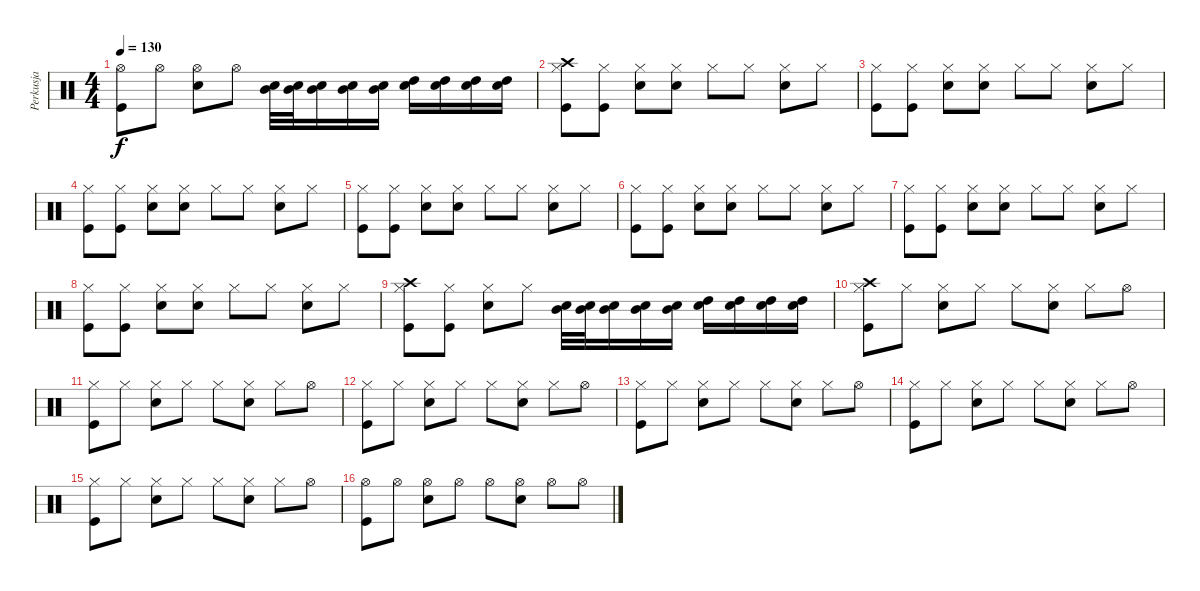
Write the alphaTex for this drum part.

\track ("Perkusja" "Perkusja") {instrument percussion}
\staff {score}
\articulation defaults
\ts (4 4)
\tempo 130
\clef neutral
\ks c
("Hi-Hat (open)" "Kick (hit)").8{dy f} "Hi-Hat (open)".8 ("Hi-Hat (open)" "Electric Snare (hit)").8 "Hi-Hat (open)".8 ("Mid Tom (hit)" "Electric Snare (hit)").32 ("Mid Tom (hit)" "Electric Snare (hit)").32 ("Mid Tom (hit)" "Electric Snare (hit)").16 ("Mid Tom (hit)" "Electric Snare (hit)").16 ("Mid Tom (hit)" "Electric Snare (hit)").16 ("High Tom (hit)" "Electric Snare (hit)").16 ("High Tom (hit)" "Electric Snare (hit)").16 ("High Tom (hit)" "Electric Snare (hit)").16 ("High Tom (hit)" "Electric Snare (hit)").16 |
("Hi-Hat (closed)" "Crash high (hit)" "Kick (hit)").8 ("Hi-Hat (closed)" "Kick (hit)").8 ("Hi-Hat (closed)" "Electric Snare (hit)").8 ("Hi-Hat (closed)" "Electric Snare (hit)").8 "Hi-Hat (closed)".8 "Hi-Hat (closed)".8 ("Hi-Hat (closed)" "Electric Snare (hit)").8 "Hi-Hat (closed)".8 |
("Hi-Hat (closed)" "Kick (hit)").8 ("Hi-Hat (closed)" "Kick (hit)").8 ("Hi-Hat (closed)" "Electric Snare (hit)").8 ("Hi-Hat (closed)" "Electric Snare (hit)").8 "Hi-Hat (closed)".8 "Hi-Hat (closed)".8 ("Hi-Hat (closed)" "Electric Snare (hit)").8 "Hi-Hat (closed)".8 |
("Hi-Hat (closed)" "Kick (hit)").8 ("Hi-Hat (closed)" "Kick (hit)").8 ("Hi-Hat (closed)" "Electric Snare (hit)").8 ("Hi-Hat (closed)" "Electric Snare (hit)").8 "Hi-Hat (closed)".8 "Hi-Hat (closed)".8 ("Hi-Hat (closed)" "Electric Snare (hit)").8 "Hi-Hat (closed)".8 |
("Hi-Hat (closed)" "Kick (hit)").8 ("Hi-Hat (closed)" "Kick (hit)").8 ("Hi-Hat (closed)" "Electric Snare (hit)").8 ("Hi-Hat (closed)" "Electric Snare (hit)").8 "Hi-Hat (closed)".8 "Hi-Hat (closed)".8 ("Hi-Hat (closed)" "Electric Snare (hit)").8 "Hi-Hat (closed)".8 |
("Hi-Hat (closed)" "Kick (hit)").8 ("Hi-Hat (closed)" "Kick (hit)").8 ("Hi-Hat (closed)" "Electric Snare (hit)").8 ("Hi-Hat (closed)" "Electric Snare (hit)").8 "Hi-Hat (closed)".8 "Hi-Hat (closed)".8 ("Hi-Hat (closed)" "Electric Snare (hit)").8 "Hi-Hat (closed)".8 |
("Hi-Hat (closed)" "Kick (hit)").8 ("Hi-Hat (closed)" "Kick (hit)").8 ("Hi-Hat (closed)" "Electric Snare (hit)").8 ("Hi-Hat (closed)" "Electric Snare (hit)").8 "Hi-Hat (closed)".8 "Hi-Hat (closed)".8 ("Hi-Hat (closed)" "Electric Snare (hit)").8 "Hi-Hat (closed)".8 |
("Hi-Hat (closed)" "Kick (hit)").8 ("Hi-Hat (closed)" "Kick (hit)").8 ("Hi-Hat (closed)" "Electric Snare (hit)").8 ("Hi-Hat (closed)" "Electric Snare (hit)").8 "Hi-Hat (closed)".8 "Hi-Hat (closed)".8 ("Hi-Hat (closed)" "Electric Snare (hit)").8 "Hi-Hat (closed)".8 |
("Hi-Hat (closed)" "Crash high (hit)" "Kick (hit)").8 ("Hi-Hat (closed)" "Kick (hit)").8 ("Hi-Hat (closed)" "Electric Snare (hit)").8 "Hi-Hat (closed)".8 ("Mid Tom (hit)" "Electric Snare (hit)").32 ("Mid Tom (hit)" "Electric Snare (hit)").32 ("Mid Tom (hit)" "Electric Snare (hit)").16 ("Mid Tom (hit)" "Electric Snare (hit)").16 ("Mid Tom (hit)" "Electric Snare (hit)").16 ("High Tom (hit)" "Electric Snare (hit)").16 ("High Tom (hit)" "Electric Snare (hit)").16 ("High Tom (hit)" "Electric Snare (hit)").16 ("High Tom (hit)" "Electric Snare (hit)").16 |
("Hi-Hat (closed)" "Crash high (hit)" "Kick (hit)").8 "Hi-Hat (closed)".8 ("Hi-Hat (closed)" "Electric Snare (hit)").8 "Hi-Hat (closed)".8 "Hi-Hat (closed)".8 ("Hi-Hat (closed)" "Electric Snare (hit)").8 "Hi-Hat (closed)".8 "Hi-Hat (open)".8 |
("Hi-Hat (closed)" "Kick (hit)").8 "Hi-Hat (closed)".8 ("Hi-Hat (closed)" "Electric Snare (hit)").8 "Hi-Hat (closed)".8 "Hi-Hat (closed)".8 ("Hi-Hat (closed)" "Electric Snare (hit)").8 "Hi-Hat (closed)".8 "Hi-Hat (open)".8 |
("Hi-Hat (closed)" "Kick (hit)").8 "Hi-Hat (closed)".8 ("Hi-Hat (closed)" "Electric Snare (hit)").8 "Hi-Hat (closed)".8 "Hi-Hat (closed)".8 ("Hi-Hat (closed)" "Electric Snare (hit)").8 "Hi-Hat (closed)".8 "Hi-Hat (open)".8 |
("Hi-Hat (closed)" "Kick (hit)").8 "Hi-Hat (closed)".8 ("Hi-Hat (closed)" "Electric Snare (hit)").8 "Hi-Hat (closed)".8 "Hi-Hat (closed)".8 ("Hi-Hat (closed)" "Electric Snare (hit)").8 "Hi-Hat (closed)".8 "Hi-Hat (open)".8 |
("Hi-Hat (closed)" "Kick (hit)").8 "Hi-Hat (closed)".8 ("Hi-Hat (closed)" "Electric Snare (hit)").8 "Hi-Hat (closed)".8 "Hi-Hat (closed)".8 ("Hi-Hat (closed)" "Electric Snare (hit)").8 "Hi-Hat (closed)".8 "Hi-Hat (open)".8 |
("Hi-Hat (closed)" "Kick (hit)").8 "Hi-Hat (closed)".8 ("Hi-Hat (closed)" "Electric Snare (hit)").8 "Hi-Hat (closed)".8 "Hi-Hat (closed)".8 ("Hi-Hat (closed)" "Electric Snare (hit)").8 "Hi-Hat (closed)".8 "Hi-Hat (open)".8 |
("Hi-Hat (open)" "Kick (hit)").8 "Hi-Hat (open)".8 ("Hi-Hat (open)" "Electric Snare (hit)").8 "Hi-Hat (open)".8 "Hi-Hat (open)".8 ("Hi-Hat (open)" "Electric Snare (hit)").8 "Hi-Hat (open)".8 "Hi-Hat (open)".8
